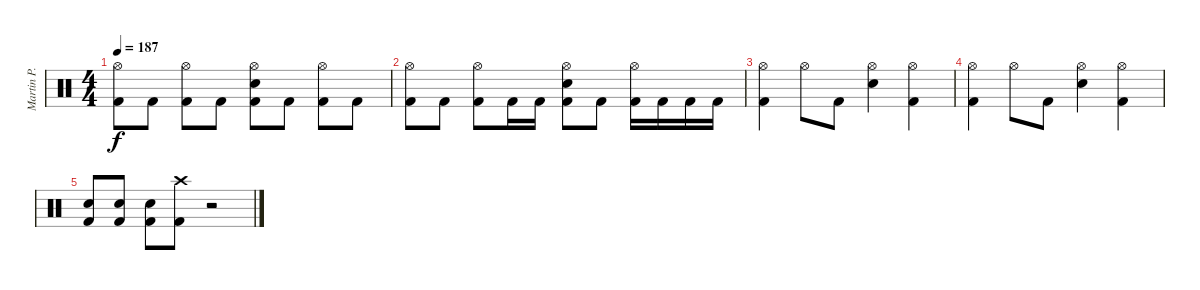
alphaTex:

\track ("Martin P." "Martin P.") {instrument percussion}
\staff {score}
\articulation defaults
\ts (4 4)
\tempo 187
\clef neutral
\ks c
("Hi-Hat (open)" "Kick (hit) 2").8{dy f} "Kick (hit) 2".8 ("Hi-Hat (open)" "Kick (hit) 2").8 "Kick (hit) 2".8 ("Hi-Hat (open)" "Electric Snare (hit)" "Kick (hit) 2").8 "Kick (hit) 2".8 ("Hi-Hat (open)" "Kick (hit) 2").8 "Kick (hit) 2".8 |
("Hi-Hat (open)" "Kick (hit) 2").8 "Kick (hit) 2".8 ("Hi-Hat (open)" "Kick (hit) 2").8 "Kick (hit) 2".16 "Kick (hit) 2".16 ("Hi-Hat (open)" "Electric Snare (hit)" "Kick (hit) 2").8 "Kick (hit) 2".8 ("Hi-Hat (open)" "Kick (hit) 2").16 "Kick (hit) 2".16 "Kick (hit) 2".16 "Kick (hit) 2".16 |
("Kick (hit) 2" "Hi-Hat (open)").4 "Hi-Hat (open)".8 "Kick (hit) 2".8 ("Electric Snare (hit)" "Hi-Hat (open)").4 ("Kick (hit) 2" "Hi-Hat (open)").4 |
("Kick (hit) 2" "Hi-Hat (open)").4 "Hi-Hat (open)".8 "Kick (hit) 2".8 ("Electric Snare (hit)" "Hi-Hat (open)").4 ("Kick (hit) 2" "Hi-Hat (open)").4 |
("Kick (hit) 2" "Electric Snare (hit)").8 ("Kick (hit) 2" "Electric Snare (hit)").8 ("Kick (hit) 2" "Electric Snare (hit)").8 ("Kick (hit) 2" "Crash high (hit)").8 r.2
